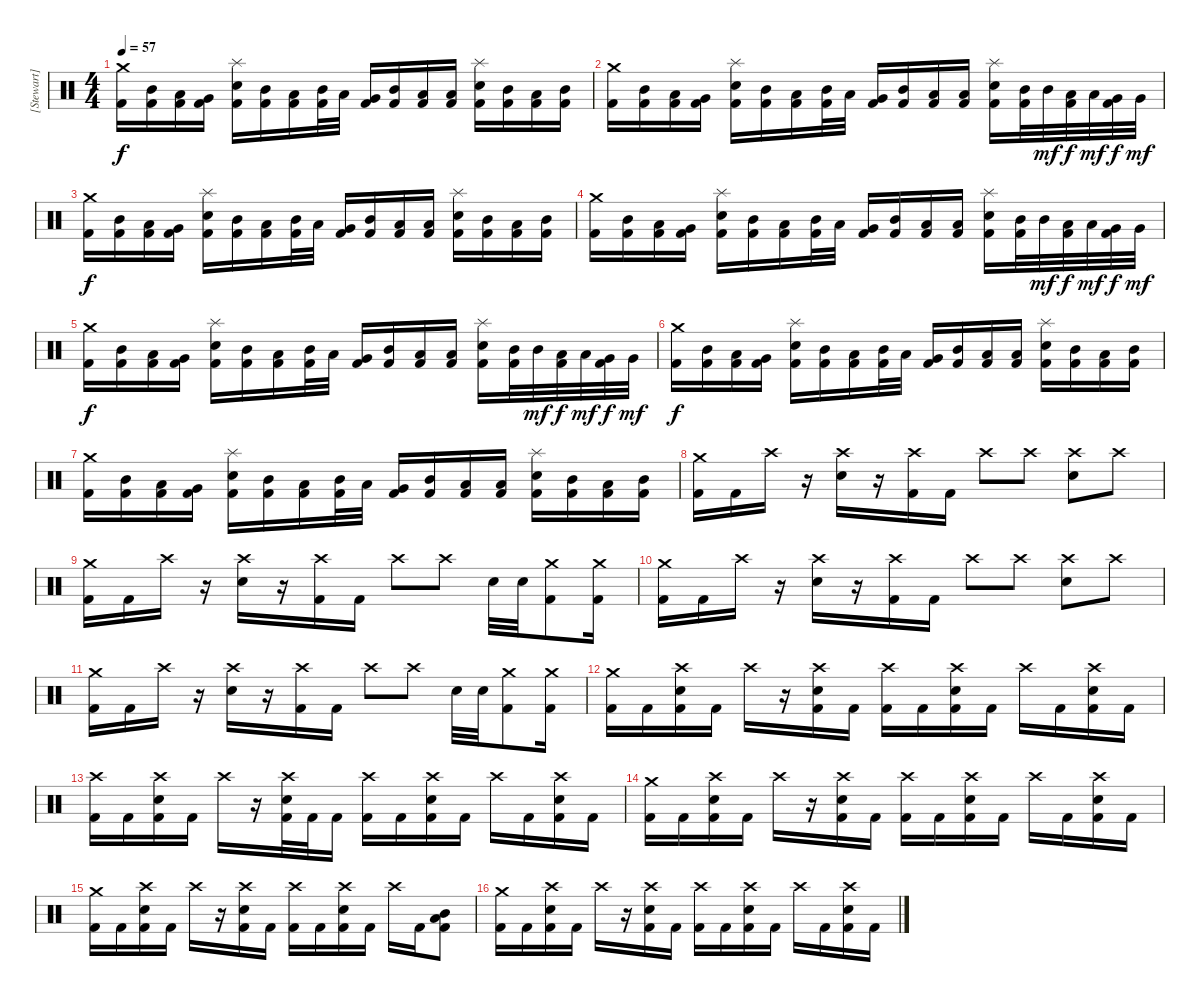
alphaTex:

\track ("[Stewart]" "[Stewart]") {instrument percussion}
\staff {score}
\articulation defaults
\ts (4 4)
\tempo 57
\clef neutral
\ks c
("Kick (hit) 2" "Crash medium (hit)").16{dy f} ("Kick (hit) 2" "Mid Tom (hit)").16 ("Kick (hit) 2" "Low Tom (hit)").16 ("Kick (hit) 2" "Very Low Tom (hit)").16 ("Kick (hit) 2" "Electric Snare (hit)" "Splash (hit)").16 ("Kick (hit) 2" "Mid Tom (hit)").16 ("Kick (hit) 2" "Low Tom (hit)").16 ("Kick (hit) 2" "Mid Tom (hit)").32 "Low Tom (hit)".32 ("Kick (hit) 2" "Very Low Tom (hit)").16 ("Kick (hit) 2" "Mid Tom (hit)").16 ("Kick (hit) 2" "Low Tom (hit)").16 ("Kick (hit) 2" "Low Tom (hit)").16 ("Kick (hit) 2" "Electric Snare (hit)" "Splash (hit)").16 ("Kick (hit) 2" "Mid Tom (hit)").16 ("Kick (hit) 2" "Low Tom (hit)").16 ("Kick (hit) 2" "Mid Tom (hit)").16 |
("Kick (hit) 2" "Crash medium (hit)").16 ("Kick (hit) 2" "Mid Tom (hit)").16 ("Kick (hit) 2" "Low Tom (hit)").16 ("Kick (hit) 2" "Very Low Tom (hit)").16 ("Kick (hit) 2" "Electric Snare (hit)" "Splash (hit)").16 ("Kick (hit) 2" "Mid Tom (hit)").16 ("Kick (hit) 2" "Low Tom (hit)").16 ("Kick (hit) 2" "Mid Tom (hit)").32 "Low Tom (hit)".32 ("Kick (hit) 2" "Very Low Tom (hit)").16 ("Kick (hit) 2" "Mid Tom (hit)").16 ("Kick (hit) 2" "Low Tom (hit)").16 ("Kick (hit) 2" "Low Tom (hit)").16 ("Kick (hit) 2" "Electric Snare (hit)" "Splash (hit)").16 ("Kick (hit) 2" "Mid Tom (hit)").32 "Mid Tom (hit)".32{dy mf} ("Kick (hit) 2" "Low Tom (hit)").32{dy f} "Low Tom (hit)".32{dy mf} ("Kick (hit) 2" "Very Low Tom (hit)").32{dy f} "Very Low Tom (hit)".32{dy mf} |
("Kick (hit) 2" "Crash medium (hit)").16{dy f} ("Kick (hit) 2" "Mid Tom (hit)").16 ("Kick (hit) 2" "Low Tom (hit)").16 ("Kick (hit) 2" "Very Low Tom (hit)").16 ("Kick (hit) 2" "Electric Snare (hit)" "Splash (hit)").16 ("Kick (hit) 2" "Mid Tom (hit)").16 ("Kick (hit) 2" "Low Tom (hit)").16 ("Kick (hit) 2" "Mid Tom (hit)").32 "Low Tom (hit)".32 ("Kick (hit) 2" "Very Low Tom (hit)").16 ("Kick (hit) 2" "Mid Tom (hit)").16 ("Kick (hit) 2" "Low Tom (hit)").16 ("Kick (hit) 2" "Low Tom (hit)").16 ("Kick (hit) 2" "Electric Snare (hit)" "Splash (hit)").16 ("Kick (hit) 2" "Mid Tom (hit)").16 ("Kick (hit) 2" "Low Tom (hit)").16 ("Kick (hit) 2" "Mid Tom (hit)").16 |
("Kick (hit) 2" "Crash medium (hit)").16 ("Kick (hit) 2" "Mid Tom (hit)").16 ("Kick (hit) 2" "Low Tom (hit)").16 ("Kick (hit) 2" "Very Low Tom (hit)").16 ("Kick (hit) 2" "Electric Snare (hit)" "Splash (hit)").16 ("Kick (hit) 2" "Mid Tom (hit)").16 ("Kick (hit) 2" "Low Tom (hit)").16 ("Kick (hit) 2" "Mid Tom (hit)").32 "Low Tom (hit)".32 ("Kick (hit) 2" "Very Low Tom (hit)").16 ("Kick (hit) 2" "Mid Tom (hit)").16 ("Kick (hit) 2" "Low Tom (hit)").16 ("Kick (hit) 2" "Low Tom (hit)").16 ("Kick (hit) 2" "Electric Snare (hit)" "Splash (hit)").16 ("Kick (hit) 2" "Mid Tom (hit)").32 "Mid Tom (hit)".32{dy mf} ("Kick (hit) 2" "Low Tom (hit)").32{dy f} "Low Tom (hit)".32{dy mf} ("Kick (hit) 2" "Very Low Tom (hit)").32{dy f} "Very Low Tom (hit)".32{dy mf} |
("Kick (hit) 2" "Crash medium (hit)").16{dy f} ("Kick (hit) 2" "Mid Tom (hit)").16 ("Kick (hit) 2" "Low Tom (hit)").16 ("Kick (hit) 2" "Very Low Tom (hit)").16 ("Kick (hit) 2" "Electric Snare (hit)" "Splash (hit)").16 ("Kick (hit) 2" "Mid Tom (hit)").16 ("Kick (hit) 2" "Low Tom (hit)").16 ("Kick (hit) 2" "Mid Tom (hit)").32 "Low Tom (hit)".32 ("Kick (hit) 2" "Very Low Tom (hit)").16 ("Kick (hit) 2" "Mid Tom (hit)").16 ("Kick (hit) 2" "Low Tom (hit)").16 ("Kick (hit) 2" "Low Tom (hit)").16 ("Kick (hit) 2" "Electric Snare (hit)" "Splash (hit)").16 ("Kick (hit) 2" "Mid Tom (hit)").32 "Mid Tom (hit)".32{dy mf} ("Kick (hit) 2" "Low Tom (hit)").32{dy f} "Low Tom (hit)".32{dy mf} ("Kick (hit) 2" "Very Low Tom (hit)").32{dy f} "Very Low Tom (hit)".32{dy mf} |
("Kick (hit) 2" "Crash medium (hit)").16{dy f} ("Kick (hit) 2" "Mid Tom (hit)").16 ("Kick (hit) 2" "Low Tom (hit)").16 ("Kick (hit) 2" "Very Low Tom (hit)").16 ("Kick (hit) 2" "Electric Snare (hit)" "Splash (hit)").16 ("Kick (hit) 2" "Mid Tom (hit)").16 ("Kick (hit) 2" "Low Tom (hit)").16 ("Kick (hit) 2" "Mid Tom (hit)").32 "Low Tom (hit)".32 ("Kick (hit) 2" "Very Low Tom (hit)").16 ("Kick (hit) 2" "Mid Tom (hit)").16 ("Kick (hit) 2" "Low Tom (hit)").16 ("Kick (hit) 2" "Low Tom (hit)").16 ("Kick (hit) 2" "Electric Snare (hit)" "Splash (hit)").16 ("Kick (hit) 2" "Mid Tom (hit)").16 ("Kick (hit) 2" "Low Tom (hit)").16 ("Kick (hit) 2" "Mid Tom (hit)").16 |
("Kick (hit) 2" "Crash medium (hit)").16 ("Kick (hit) 2" "Mid Tom (hit)").16 ("Kick (hit) 2" "Low Tom (hit)").16 ("Kick (hit) 2" "Very Low Tom (hit)").16 ("Kick (hit) 2" "Electric Snare (hit)" "Splash (hit)").16 ("Kick (hit) 2" "Mid Tom (hit)").16 ("Kick (hit) 2" "Low Tom (hit)").16 ("Kick (hit) 2" "Mid Tom (hit)").32 "Low Tom (hit)".32 ("Kick (hit) 2" "Very Low Tom (hit)").16 ("Kick (hit) 2" "Mid Tom (hit)").16 ("Kick (hit) 2" "Low Tom (hit)").16 ("Kick (hit) 2" "Low Tom (hit)").16 ("Kick (hit) 2" "Electric Snare (hit)" "Splash (hit)").16 ("Kick (hit) 2" "Mid Tom (hit)").16 ("Kick (hit) 2" "Low Tom (hit)").16 ("Kick (hit) 2" "Mid Tom (hit)").16 |
("Kick (hit) 2" "Crash medium (hit)").16 "Kick (hit) 2".16 "Crash high (hit)".16 r.16 ("Electric Snare (hit)" "Crash high (hit)").16 r.16 ("Kick (hit) 2" "Crash high (hit)").16 "Kick (hit) 2".16 "Crash high (hit)".8 "Crash high (hit)".8 ("Electric Snare (hit)" "Crash high (hit)").8 "Crash high (hit)".8 |
("Kick (hit) 2" "Crash medium (hit)").16 "Kick (hit) 2".16 "Crash high (hit)".16 r.16 ("Electric Snare (hit)" "Crash high (hit)").16 r.16 ("Kick (hit) 2" "Crash high (hit)").16 "Kick (hit) 2".16 "Crash high (hit)".8 "Crash high (hit)".8 "Electric Snare (hit)".32 "Electric Snare (hit)".32 ("Kick (hit) 2" "Crash medium (hit)").8 ("Kick (hit) 2" "Crash medium (hit)").16 |
("Kick (hit) 2" "Crash medium (hit)").16 "Kick (hit) 2".16 "Crash high (hit)".16 r.16 ("Electric Snare (hit)" "Crash high (hit)").16 r.16 ("Kick (hit) 2" "Crash high (hit)").16 "Kick (hit) 2".16 "Crash high (hit)".8 "Crash high (hit)".8 ("Electric Snare (hit)" "Crash high (hit)").8 "Crash high (hit)".8 |
("Kick (hit) 2" "Crash medium (hit)").16 "Kick (hit) 2".16 "Crash high (hit)".16 r.16 ("Electric Snare (hit)" "Crash high (hit)").16 r.16 ("Kick (hit) 2" "Crash high (hit)").16 "Kick (hit) 2".16 "Crash high (hit)".8 "Crash high (hit)".8 "Electric Snare (hit)".32 "Electric Snare (hit)".32 ("Kick (hit) 2" "Crash medium (hit)").8 ("Kick (hit) 2" "Crash medium (hit)").16 |
("Kick (hit) 2" "Crash medium (hit)").16 "Kick (hit) 2".16 ("Kick (hit) 2" "Electric Snare (hit)" "Crash high (hit)").16 "Kick (hit) 2".16 "Crash high (hit)".16 r.16 ("Kick (hit) 2" "Electric Snare (hit)" "Crash high (hit)").16 "Kick (hit) 2".16 ("Kick (hit) 2" "Crash high (hit)").16 "Kick (hit) 2".16 ("Kick (hit) 2" "Electric Snare (hit)" "Crash high (hit)").16 "Kick (hit) 2".16 "Crash high (hit)".16 "Kick (hit) 2".16 ("Kick (hit) 2" "Electric Snare (hit)" "Crash high (hit)").16 "Kick (hit) 2".16 |
("Kick (hit) 2" "Crash high (hit)").16 "Kick (hit) 2".16 ("Kick (hit) 2" "Electric Snare (hit)" "Crash high (hit)").16 "Kick (hit) 2".16 "Crash high (hit)".16 r.16 ("Kick (hit) 2" "Electric Snare (hit)" "Crash high (hit)").32 "Kick (hit) 2".32 "Kick (hit) 2".16 ("Kick (hit) 2" "Crash high (hit)").16 "Kick (hit) 2".16 ("Kick (hit) 2" "Electric Snare (hit)" "Crash high (hit)").16 "Kick (hit) 2".16 "Crash high (hit)".16 "Kick (hit) 2".16 ("Kick (hit) 2" "Electric Snare (hit)" "Crash high (hit)").16 "Kick (hit) 2".16 |
("Kick (hit) 2" "Crash medium (hit)").16 "Kick (hit) 2".16 ("Kick (hit) 2" "Electric Snare (hit)" "Crash high (hit)").16 "Kick (hit) 2".16 "Crash high (hit)".16 r.16 ("Kick (hit) 2" "Electric Snare (hit)" "Crash high (hit)").16 "Kick (hit) 2".16 ("Kick (hit) 2" "Crash high (hit)").16 "Kick (hit) 2".16 ("Kick (hit) 2" "Electric Snare (hit)" "Crash high (hit)").16 "Kick (hit) 2".16 "Crash high (hit)".16 "Kick (hit) 2".16 ("Kick (hit) 2" "Electric Snare (hit)" "Crash high (hit)").16 "Kick (hit) 2".16 |
("Kick (hit) 2" "Crash medium (hit)").16 "Kick (hit) 2".16 ("Kick (hit) 2" "Electric Snare (hit)" "Crash high (hit)").16 "Kick (hit) 2".16 "Crash high (hit)".16 r.16 ("Kick (hit) 2" "Electric Snare (hit)" "Crash high (hit)").16 "Kick (hit) 2".16 ("Kick (hit) 2" "Crash high (hit)").16 "Kick (hit) 2".16 ("Kick (hit) 2" "Electric Snare (hit)" "Crash high (hit)").16 "Kick (hit) 2".16 "Crash high (hit)".16 "Kick (hit) 2".16 ("Kick (hit) 2" "Mid Tom (hit)" "Low Tom (hit)").8 |
("Kick (hit) 2" "Crash medium (hit)").16 "Kick (hit) 2".16 ("Kick (hit) 2" "Electric Snare (hit)" "Crash high (hit)").16 "Kick (hit) 2".16 "Crash high (hit)".16 r.16 ("Kick (hit) 2" "Electric Snare (hit)" "Crash high (hit)").16 "Kick (hit) 2".16 ("Kick (hit) 2" "Crash high (hit)").16 "Kick (hit) 2".16 ("Kick (hit) 2" "Electric Snare (hit)" "Crash high (hit)").16 "Kick (hit) 2".16 "Crash high (hit)".16 "Kick (hit) 2".16 ("Kick (hit) 2" "Electric Snare (hit)" "Crash high (hit)").16 "Kick (hit) 2".16
